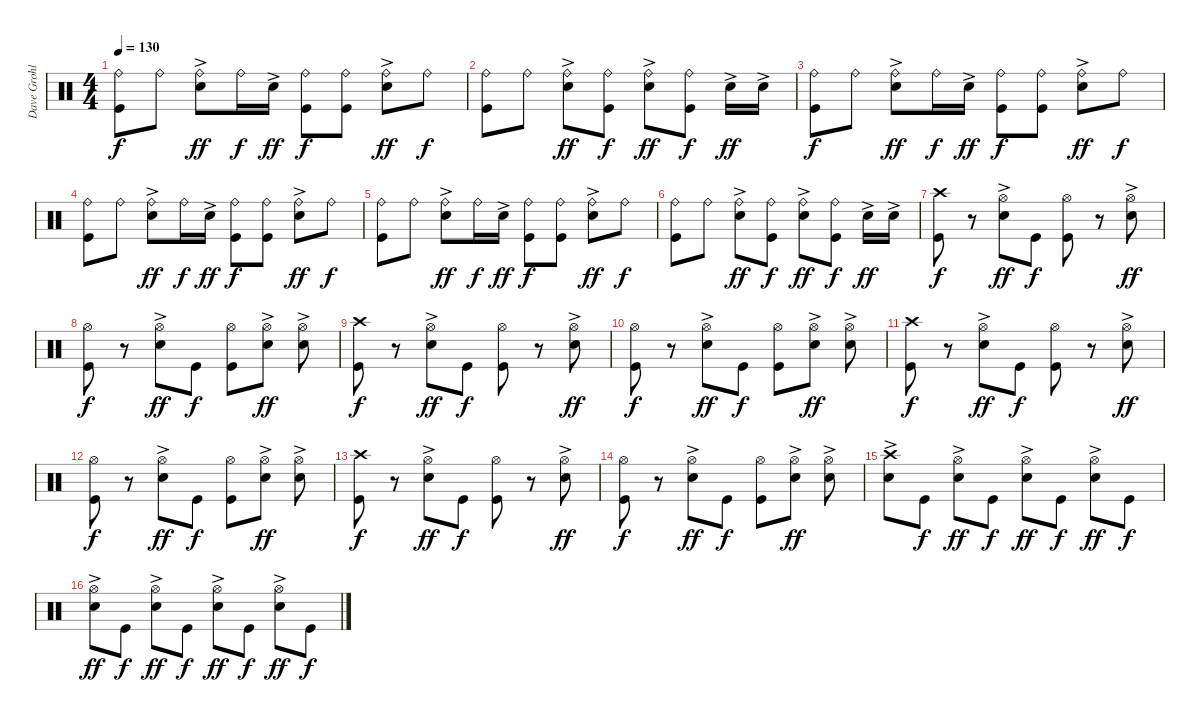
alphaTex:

\track ("Dave Grohl" "Dave Grohl") {instrument percussion}
\staff {score}
\articulation defaults
\ts (4 4)
\tempo 130
\clef neutral
\ks c
("Ride (bell)" "Kick (hit)").8{dy f} "Ride (bell)".8 ("Ride (bell)" "Electric Snare (hit)"{ac}).8{dy ff} "Ride (bell)".16{dy f} "Electric Snare (hit)"{ac}.16{dy ff} ("Ride (bell)" "Kick (hit)").8{dy f} ("Ride (bell)" "Kick (hit)").8 ("Ride (bell)" "Electric Snare (hit)"{ac}).8{dy ff} "Ride (bell)".8{dy f} |
("Ride (bell)" "Kick (hit)").8 "Ride (bell)".8 ("Ride (bell)" "Electric Snare (hit)"{ac}).8{dy ff} ("Ride (bell)" "Kick (hit)").8{dy f} ("Ride (bell)" "Electric Snare (hit)"{ac}).8{dy ff} ("Ride (bell)" "Kick (hit)").8{dy f} "Electric Snare (hit)"{ac}.16{dy ff} "Electric Snare (hit)"{ac}.16 |
("Ride (bell)" "Kick (hit)").8{dy f} "Ride (bell)".8 ("Ride (bell)" "Electric Snare (hit)"{ac}).8{dy ff} "Ride (bell)".16{dy f} "Electric Snare (hit)"{ac}.16{dy ff} ("Ride (bell)" "Kick (hit)").8{dy f} ("Ride (bell)" "Kick (hit)").8 ("Ride (bell)" "Electric Snare (hit)"{ac}).8{dy ff} "Ride (bell)".8{dy f} |
("Ride (bell)" "Kick (hit)").8 "Ride (bell)".8 ("Ride (bell)" "Electric Snare (hit)"{ac}).8{dy ff} "Ride (bell)".16{dy f} "Electric Snare (hit)"{ac}.16{dy ff} ("Ride (bell)" "Kick (hit)").8{dy f} ("Ride (bell)" "Kick (hit)").8 ("Ride (bell)" "Electric Snare (hit)"{ac}).8{dy ff} "Ride (bell)".8{dy f} |
("Ride (bell)" "Kick (hit)").8 "Ride (bell)".8 ("Ride (bell)" "Electric Snare (hit)"{ac}).8{dy ff} "Ride (bell)".16{dy f} "Electric Snare (hit)"{ac}.16{dy ff} ("Ride (bell)" "Kick (hit)").8{dy f} ("Ride (bell)" "Kick (hit)").8 ("Ride (bell)" "Electric Snare (hit)"{ac}).8{dy ff} "Ride (bell)".8{dy f} |
("Ride (bell)" "Kick (hit)").8 "Ride (bell)".8 ("Ride (bell)" "Electric Snare (hit)"{ac}).8{dy ff} ("Ride (bell)" "Kick (hit)").8{dy f} ("Ride (bell)" "Electric Snare (hit)"{ac}).8{dy ff} ("Ride (bell)" "Kick (hit)").8{dy f} "Electric Snare (hit)"{ac}.16{dy ff} "Electric Snare (hit)"{ac}.16 |
("Crash high (hit)" "Kick (hit)").8{dy f} r.8 ("Hi-Hat (open)" "Electric Snare (hit)"{ac}).8{dy ff} "Kick (hit)".8{dy f} ("Hi-Hat (open)" "Kick (hit)").8 r.8 ("Hi-Hat (open)" "Electric Snare (hit)"{ac}).8{dy ff} |
("Hi-Hat (open)" "Kick (hit)").8{dy f} r.8 ("Hi-Hat (open)" "Electric Snare (hit)"{ac}).8{dy ff} "Kick (hit)".8{dy f} ("Hi-Hat (open)" "Kick (hit)").8 ("Hi-Hat (open)" "Electric Snare (hit)"{ac}).8{dy ff} ("Hi-Hat (open)" "Electric Snare (hit)"{ac}).8 |
("Crash high (hit)" "Kick (hit)").8{dy f} r.8 ("Hi-Hat (open)" "Electric Snare (hit)"{ac}).8{dy ff} "Kick (hit)".8{dy f} ("Hi-Hat (open)" "Kick (hit)").8 r.8 ("Hi-Hat (open)" "Electric Snare (hit)"{ac}).8{dy ff} |
("Hi-Hat (open)" "Kick (hit)").8{dy f} r.8 ("Hi-Hat (open)" "Electric Snare (hit)"{ac}).8{dy ff} "Kick (hit)".8{dy f} ("Hi-Hat (open)" "Kick (hit)").8 ("Hi-Hat (open)" "Electric Snare (hit)"{ac}).8{dy ff} ("Hi-Hat (open)" "Electric Snare (hit)"{ac}).8 |
("Crash high (hit)" "Kick (hit)").8{dy f} r.8 ("Hi-Hat (open)" "Electric Snare (hit)"{ac}).8{dy ff} "Kick (hit)".8{dy f} ("Hi-Hat (open)" "Kick (hit)").8 r.8 ("Hi-Hat (open)" "Electric Snare (hit)"{ac}).8{dy ff} |
("Hi-Hat (open)" "Kick (hit)").8{dy f} r.8 ("Hi-Hat (open)" "Electric Snare (hit)"{ac}).8{dy ff} "Kick (hit)".8{dy f} ("Hi-Hat (open)" "Kick (hit)").8 ("Hi-Hat (open)" "Electric Snare (hit)"{ac}).8{dy ff} ("Hi-Hat (open)" "Electric Snare (hit)"{ac}).8 |
("Crash high (hit)" "Kick (hit)").8{dy f} r.8 ("Hi-Hat (open)" "Electric Snare (hit)"{ac}).8{dy ff} "Kick (hit)".8{dy f} ("Hi-Hat (open)" "Kick (hit)").8 r.8 ("Hi-Hat (open)" "Electric Snare (hit)"{ac}).8{dy ff} |
("Hi-Hat (open)" "Kick (hit)").8{dy f} r.8 ("Hi-Hat (open)" "Electric Snare (hit)"{ac}).8{dy ff} "Kick (hit)".8{dy f} ("Hi-Hat (open)" "Kick (hit)").8 ("Hi-Hat (open)" "Electric Snare (hit)"{ac}).8{dy ff} ("Hi-Hat (open)" "Electric Snare (hit)"{ac}).8 |
("Crash high (hit)" "Electric Snare (hit)"{ac}).8 "Kick (hit)".8{dy f} ("Hi-Hat (open)" "Electric Snare (hit)"{ac}).8{dy ff} "Kick (hit)".8{dy f} ("Hi-Hat (open)" "Electric Snare (hit)"{ac}).8{dy ff} "Kick (hit)".8{dy f} ("Hi-Hat (open)" "Electric Snare (hit)"{ac}).8{dy ff} "Kick (hit)".8{dy f} |
("Hi-Hat (open)" "Electric Snare (hit)"{ac}).8{dy ff} "Kick (hit)".8{dy f} ("Hi-Hat (open)" "Electric Snare (hit)"{ac}).8{dy ff} "Kick (hit)".8{dy f} ("Hi-Hat (open)" "Electric Snare (hit)"{ac}).8{dy ff} "Kick (hit)".8{dy f} ("Hi-Hat (open)" "Electric Snare (hit)"{ac}).8{dy ff} "Kick (hit)".8{dy f}
